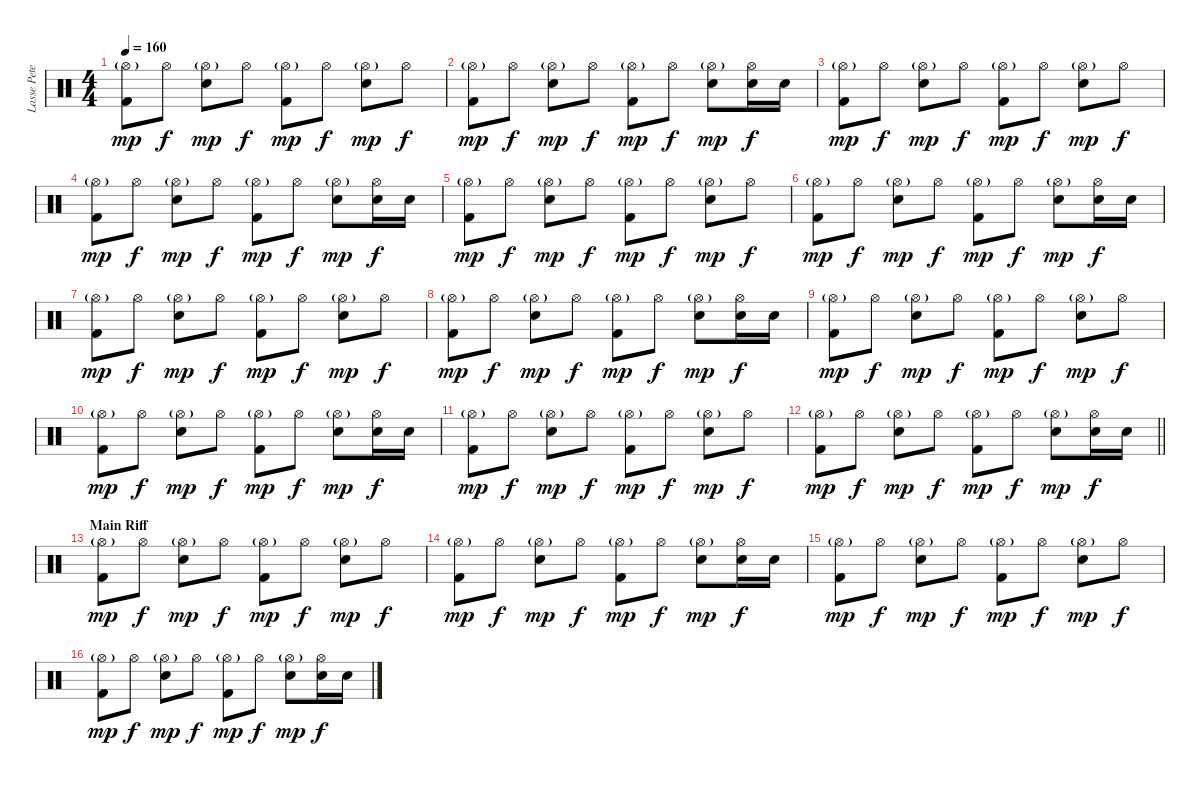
\track ("Lasse Petersen - Drums" "Lasse Pete") {instrument percussion}
\staff {score}
\articulation defaults
\ts (4 4)
\tempo 160
\clef neutral
\ks c
("Kick (hit) 2" "Hi-Hat (open)"{g}).8{dy mp} "Hi-Hat (open)".8{dy f} ("Electric Snare (hit)" "Hi-Hat (open)"{g}).8{dy mp} "Hi-Hat (open)".8{dy f} ("Kick (hit) 2" "Hi-Hat (open)"{g}).8{dy mp} "Hi-Hat (open)".8{dy f} ("Electric Snare (hit)" "Hi-Hat (open)"{g}).8{dy mp} "Hi-Hat (open)".8{dy f} |
("Kick (hit) 2" "Hi-Hat (open)"{g}).8{dy mp} "Hi-Hat (open)".8{dy f} ("Electric Snare (hit)" "Hi-Hat (open)"{g}).8{dy mp} "Hi-Hat (open)".8{dy f} ("Kick (hit) 2" "Hi-Hat (open)"{g}).8{dy mp} "Hi-Hat (open)".8{dy f} ("Electric Snare (hit)" "Hi-Hat (open)"{g}).8{dy mp} ("Electric Snare (hit)" "Hi-Hat (open)").16{dy f} "Electric Snare (hit)".16 |
("Kick (hit) 2" "Hi-Hat (open)"{g}).8{dy mp} "Hi-Hat (open)".8{dy f} ("Electric Snare (hit)" "Hi-Hat (open)"{g}).8{dy mp} "Hi-Hat (open)".8{dy f} ("Kick (hit) 2" "Hi-Hat (open)"{g}).8{dy mp} "Hi-Hat (open)".8{dy f} ("Electric Snare (hit)" "Hi-Hat (open)"{g}).8{dy mp} "Hi-Hat (open)".8{dy f} |
("Kick (hit) 2" "Hi-Hat (open)"{g}).8{dy mp} "Hi-Hat (open)".8{dy f} ("Electric Snare (hit)" "Hi-Hat (open)"{g}).8{dy mp} "Hi-Hat (open)".8{dy f} ("Kick (hit) 2" "Hi-Hat (open)"{g}).8{dy mp} "Hi-Hat (open)".8{dy f} ("Electric Snare (hit)" "Hi-Hat (open)"{g}).8{dy mp} ("Electric Snare (hit)" "Hi-Hat (open)").16{dy f} "Electric Snare (hit)".16 |
("Kick (hit) 2" "Hi-Hat (open)"{g}).8{dy mp} "Hi-Hat (open)".8{dy f} ("Electric Snare (hit)" "Hi-Hat (open)"{g}).8{dy mp} "Hi-Hat (open)".8{dy f} ("Kick (hit) 2" "Hi-Hat (open)"{g}).8{dy mp} "Hi-Hat (open)".8{dy f} ("Electric Snare (hit)" "Hi-Hat (open)"{g}).8{dy mp} "Hi-Hat (open)".8{dy f} |
("Kick (hit) 2" "Hi-Hat (open)"{g}).8{dy mp} "Hi-Hat (open)".8{dy f} ("Electric Snare (hit)" "Hi-Hat (open)"{g}).8{dy mp} "Hi-Hat (open)".8{dy f} ("Kick (hit) 2" "Hi-Hat (open)"{g}).8{dy mp} "Hi-Hat (open)".8{dy f} ("Electric Snare (hit)" "Hi-Hat (open)"{g}).8{dy mp} ("Electric Snare (hit)" "Hi-Hat (open)").16{dy f} "Electric Snare (hit)".16 |
("Kick (hit) 2" "Hi-Hat (open)"{g}).8{dy mp} "Hi-Hat (open)".8{dy f} ("Electric Snare (hit)" "Hi-Hat (open)"{g}).8{dy mp} "Hi-Hat (open)".8{dy f} ("Kick (hit) 2" "Hi-Hat (open)"{g}).8{dy mp} "Hi-Hat (open)".8{dy f} ("Electric Snare (hit)" "Hi-Hat (open)"{g}).8{dy mp} "Hi-Hat (open)".8{dy f} |
("Kick (hit) 2" "Hi-Hat (open)"{g}).8{dy mp} "Hi-Hat (open)".8{dy f} ("Electric Snare (hit)" "Hi-Hat (open)"{g}).8{dy mp} "Hi-Hat (open)".8{dy f} ("Kick (hit) 2" "Hi-Hat (open)"{g}).8{dy mp} "Hi-Hat (open)".8{dy f} ("Electric Snare (hit)" "Hi-Hat (open)"{g}).8{dy mp} ("Electric Snare (hit)" "Hi-Hat (open)").16{dy f} "Electric Snare (hit)".16 |
("Kick (hit) 2" "Hi-Hat (open)"{g}).8{dy mp} "Hi-Hat (open)".8{dy f} ("Electric Snare (hit)" "Hi-Hat (open)"{g}).8{dy mp} "Hi-Hat (open)".8{dy f} ("Kick (hit) 2" "Hi-Hat (open)"{g}).8{dy mp} "Hi-Hat (open)".8{dy f} ("Electric Snare (hit)" "Hi-Hat (open)"{g}).8{dy mp} "Hi-Hat (open)".8{dy f} |
("Kick (hit) 2" "Hi-Hat (open)"{g}).8{dy mp} "Hi-Hat (open)".8{dy f} ("Electric Snare (hit)" "Hi-Hat (open)"{g}).8{dy mp} "Hi-Hat (open)".8{dy f} ("Kick (hit) 2" "Hi-Hat (open)"{g}).8{dy mp} "Hi-Hat (open)".8{dy f} ("Electric Snare (hit)" "Hi-Hat (open)"{g}).8{dy mp} ("Electric Snare (hit)" "Hi-Hat (open)").16{dy f} "Electric Snare (hit)".16 |
("Kick (hit) 2" "Hi-Hat (open)"{g}).8{dy mp} "Hi-Hat (open)".8{dy f} ("Electric Snare (hit)" "Hi-Hat (open)"{g}).8{dy mp} "Hi-Hat (open)".8{dy f} ("Kick (hit) 2" "Hi-Hat (open)"{g}).8{dy mp} "Hi-Hat (open)".8{dy f} ("Electric Snare (hit)" "Hi-Hat (open)"{g}).8{dy mp} "Hi-Hat (open)".8{dy f} |
\barLineRight lightlight
("Kick (hit) 2" "Hi-Hat (open)"{g}).8{dy mp} "Hi-Hat (open)".8{dy f} ("Electric Snare (hit)" "Hi-Hat (open)"{g}).8{dy mp} "Hi-Hat (open)".8{dy f} ("Kick (hit) 2" "Hi-Hat (open)"{g}).8{dy mp} "Hi-Hat (open)".8{dy f} ("Electric Snare (hit)" "Hi-Hat (open)"{g}).8{dy mp} ("Electric Snare (hit)" "Hi-Hat (open)").16{dy f} "Electric Snare (hit)".16 |
\section ("" "Main Riff")
("Kick (hit) 2" "Hi-Hat (open)"{g}).8{dy mp} "Hi-Hat (open)".8{dy f} ("Electric Snare (hit)" "Hi-Hat (open)"{g}).8{dy mp} "Hi-Hat (open)".8{dy f} ("Kick (hit) 2" "Hi-Hat (open)"{g}).8{dy mp} "Hi-Hat (open)".8{dy f} ("Electric Snare (hit)" "Hi-Hat (open)"{g}).8{dy mp} "Hi-Hat (open)".8{dy f} |
("Kick (hit) 2" "Hi-Hat (open)"{g}).8{dy mp} "Hi-Hat (open)".8{dy f} ("Electric Snare (hit)" "Hi-Hat (open)"{g}).8{dy mp} "Hi-Hat (open)".8{dy f} ("Kick (hit) 2" "Hi-Hat (open)"{g}).8{dy mp} "Hi-Hat (open)".8{dy f} ("Electric Snare (hit)" "Hi-Hat (open)"{g}).8{dy mp} ("Electric Snare (hit)" "Hi-Hat (open)").16{dy f} "Electric Snare (hit)".16 |
("Kick (hit) 2" "Hi-Hat (open)"{g}).8{dy mp} "Hi-Hat (open)".8{dy f} ("Electric Snare (hit)" "Hi-Hat (open)"{g}).8{dy mp} "Hi-Hat (open)".8{dy f} ("Kick (hit) 2" "Hi-Hat (open)"{g}).8{dy mp} "Hi-Hat (open)".8{dy f} ("Electric Snare (hit)" "Hi-Hat (open)"{g}).8{dy mp} "Hi-Hat (open)".8{dy f} |
("Kick (hit) 2" "Hi-Hat (open)"{g}).8{dy mp} "Hi-Hat (open)".8{dy f} ("Electric Snare (hit)" "Hi-Hat (open)"{g}).8{dy mp} "Hi-Hat (open)".8{dy f} ("Kick (hit) 2" "Hi-Hat (open)"{g}).8{dy mp} "Hi-Hat (open)".8{dy f} ("Electric Snare (hit)" "Hi-Hat (open)"{g}).8{dy mp} ("Electric Snare (hit)" "Hi-Hat (open)").16{dy f} "Electric Snare (hit)".16
